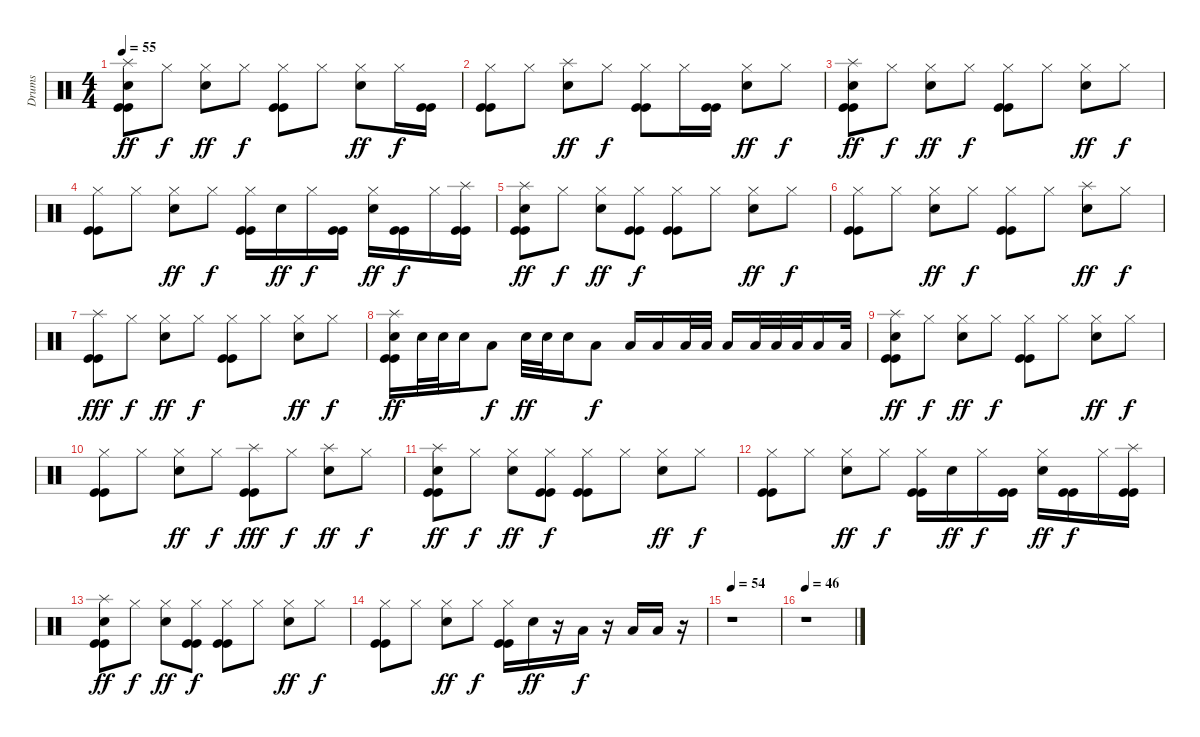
\track ("Drums" "Drums") {instrument percussion}
\staff {score}
\articulation defaults
\ts (4 4)
\tempo 55
\clef neutral
\ks c
("Splash (hit)" "Snare (hit) 2" "Kick (hit)" "Kick (hit)").8{dy ff} "Hi-Hat (closed)".8{dy f} ("Hi-Hat (closed)" "Snare (hit) 2").8{dy ff} "Hi-Hat (closed)".8{dy f} ("Hi-Hat (closed)" "Kick (hit)" "Kick (hit)").8 "Hi-Hat (closed)".8 ("Hi-Hat (closed)" "Snare (hit) 2").8{dy ff} "Hi-Hat (closed)".16{dy f} ("Kick (hit)" "Kick (hit)").16 |
("Hi-Hat (closed)" "Kick (hit)" "Kick (hit)").8 "Hi-Hat (closed)".8 ("Splash (hit)" "Snare (hit) 2").8{dy ff} "Hi-Hat (closed)".8{dy f} ("Hi-Hat (closed)" "Kick (hit)" "Kick (hit)").8 "Hi-Hat (closed)".16 ("Kick (hit)" "Kick (hit)").16 ("Hi-Hat (closed)" "Snare (hit) 2").8{dy ff} "Hi-Hat (closed)".8{dy f} |
("Splash (hit)" "Snare (hit) 2" "Kick (hit)" "Kick (hit)").8{dy ff} "Hi-Hat (closed)".8{dy f} ("Hi-Hat (closed)" "Snare (hit) 2").8{dy ff} "Hi-Hat (closed)".8{dy f} ("Hi-Hat (closed)" "Kick (hit)" "Kick (hit)").8 "Hi-Hat (closed)".8 ("Hi-Hat (closed)" "Snare (hit) 2").8{dy ff} "Hi-Hat (closed)".8{dy f} |
("Hi-Hat (closed)" "Kick (hit)" "Kick (hit)").8 "Hi-Hat (closed)".8 ("Hi-Hat (closed)" "Snare (hit) 2").8{dy ff} "Hi-Hat (closed)".8{dy f} ("Hi-Hat (closed)" "Kick (hit)" "Kick (hit)").16 "Snare (hit) 2".16{dy ff} "Hi-Hat (closed)".16{dy f} ("Kick (hit)" "Kick (hit)").16 ("Hi-Hat (closed)" "Snare (hit) 2").16{dy ff} ("Kick (hit)" "Kick (hit)").16{dy f} "Hi-Hat (closed)".16 ("Splash (hit)" "Kick (hit)" "Kick (hit)").16 |
("Splash (hit)" "Snare (hit) 2" "Kick (hit)" "Kick (hit)").8{dy ff} "Hi-Hat (closed)".8{dy f} ("Hi-Hat (closed)" "Snare (hit) 2").8{dy ff} ("Hi-Hat (closed)" "Kick (hit)" "Kick (hit)").8{dy f} ("Hi-Hat (closed)" "Kick (hit)" "Kick (hit)").8 "Hi-Hat (closed)".8 ("Hi-Hat (closed)" "Snare (hit) 2").8{dy ff} "Hi-Hat (closed)".8{dy f} |
("Hi-Hat (closed)" "Kick (hit)" "Kick (hit)").8 "Hi-Hat (closed)".8 ("Hi-Hat (closed)" "Snare (hit) 2").8{dy ff} "Hi-Hat (closed)".8{dy f} ("Hi-Hat (closed)" "Kick (hit)" "Kick (hit)").8 "Hi-Hat (closed)".8 ("Splash (hit)" "Snare (hit) 2").8{dy ff} "Hi-Hat (closed)".8{dy f} |
("Splash (hit)" "Kick (hit)" "Kick (hit)").8{dy fff} "Hi-Hat (closed)".8{dy f} ("Hi-Hat (closed)" "Snare (hit) 2").8{dy ff} "Hi-Hat (closed)".8{dy f} ("Hi-Hat (closed)" "Kick (hit)" "Kick (hit)").8 "Hi-Hat (closed)".8 ("Hi-Hat (closed)" "Snare (hit) 2").8{dy ff} "Hi-Hat (closed)".8{dy f} |
("Splash (hit)" "Snare (hit) 2" "Kick (hit)" "Kick (hit)").16{dy ff} "Snare (hit) 2".32 "Snare (hit) 2".32 "Snare (hit) 2".16 "Low Tom (hit)".8{dy f} "Snare (hit) 2".32{dy ff} "Snare (hit) 2".32 "Snare (hit) 2".16 "Low Tom (hit)".8{dy f} "Low Tom (hit)".16 "Low Tom (hit)".16 "Low Tom (hit)".32 "Low Tom (hit)".32 "Low Tom (hit)".16 "Low Tom (hit)".32 "Low Tom (hit)".32 "Low Tom (hit)".32 "Low Tom (hit)".16 "Low Tom (hit)".32 |
("Splash (hit)" "Snare (hit) 2" "Kick (hit)" "Kick (hit)").8{dy ff} "Hi-Hat (closed)".8{dy f} ("Hi-Hat (closed)" "Snare (hit) 2").8{dy ff} "Hi-Hat (closed)".8{dy f} ("Hi-Hat (closed)" "Kick (hit)" "Kick (hit)").8 "Hi-Hat (closed)".8 ("Hi-Hat (closed)" "Snare (hit) 2").8{dy ff} "Hi-Hat (closed)".8{dy f} |
("Hi-Hat (closed)" "Kick (hit)" "Kick (hit)").8 "Hi-Hat (closed)".8 ("Hi-Hat (closed)" "Snare (hit) 2").8{dy ff} "Hi-Hat (closed)".8{dy f} ("Splash (hit)" "Kick (hit)" "Kick (hit)").8{dy fff} "Hi-Hat (closed)".8{dy f} ("Splash (hit)" "Snare (hit) 2").8{dy ff} "Hi-Hat (closed)".8{dy f} |
("Splash (hit)" "Snare (hit) 2" "Kick (hit)" "Kick (hit)").8{dy ff} "Hi-Hat (closed)".8{dy f} ("Hi-Hat (closed)" "Snare (hit) 2").8{dy ff} ("Hi-Hat (closed)" "Kick (hit)" "Kick (hit)").8{dy f} ("Hi-Hat (closed)" "Kick (hit)" "Kick (hit)").8 "Hi-Hat (closed)".8 ("Hi-Hat (closed)" "Snare (hit) 2").8{dy ff} "Hi-Hat (closed)".8{dy f} |
("Hi-Hat (closed)" "Kick (hit)" "Kick (hit)").8 "Hi-Hat (closed)".8 ("Hi-Hat (closed)" "Snare (hit) 2").8{dy ff} "Hi-Hat (closed)".8{dy f} ("Hi-Hat (closed)" "Kick (hit)" "Kick (hit)").16 "Snare (hit) 2".16{dy ff} "Hi-Hat (closed)".16{dy f} ("Kick (hit)" "Kick (hit)").16 ("Hi-Hat (closed)" "Snare (hit) 2").16{dy ff} ("Kick (hit)" "Kick (hit)").16{dy f} "Hi-Hat (closed)".16 ("Splash (hit)" "Kick (hit)" "Kick (hit)").16 |
("Splash (hit)" "Snare (hit) 2" "Kick (hit)" "Kick (hit)").8{dy ff} "Hi-Hat (closed)".8{dy f} ("Hi-Hat (closed)" "Snare (hit) 2").8{dy ff} ("Hi-Hat (closed)" "Kick (hit)" "Kick (hit)").8{dy f} ("Hi-Hat (closed)" "Kick (hit)" "Kick (hit)").8 "Hi-Hat (closed)".8 ("Hi-Hat (closed)" "Snare (hit) 2").8{dy ff} "Hi-Hat (closed)".8{dy f} |
("Hi-Hat (closed)" "Kick (hit)" "Kick (hit)").8 "Hi-Hat (closed)".8 ("Hi-Hat (closed)" "Snare (hit) 2").8{dy ff} "Hi-Hat (closed)".8{dy f} ("Hi-Hat (closed)" "Kick (hit)" "Kick (hit)").16 "Snare (hit) 2".16{dy ff} r.16 "Low Tom (hit)".16{dy f} r.16 "Low Tom (hit)".16 "Low Tom (hit)".16 r.16 |
\tempo 54
r.1 |
\tempo 46
r.1
